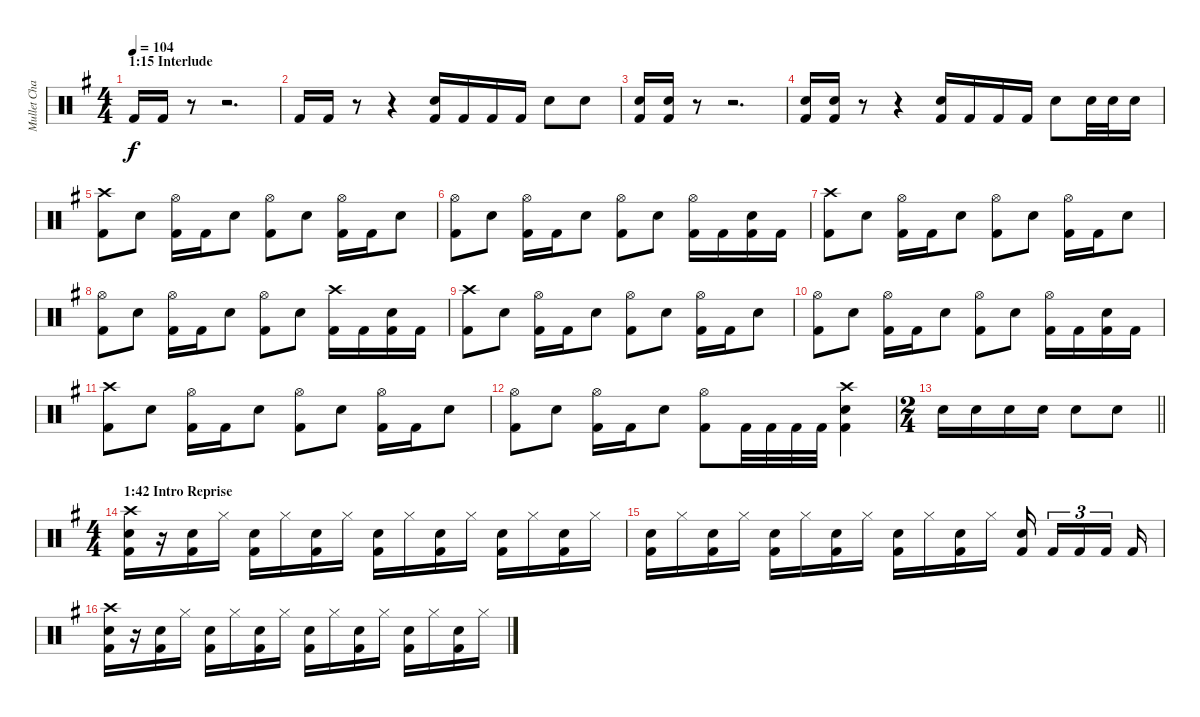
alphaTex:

\track ("Mullet Chad" "Mullet Cha") {instrument percussion}
\staff {score}
\articulation defaults
\ts (4 4)
\section ("" "1:15 Interlude")
\tempo 104
\clef neutral
\ks g "Kick (hit) 2".16{dy f} "Kick (hit) 2".16
r.8 r.2{d} |
"Kick (hit) 2".16 "Kick (hit) 2".16 r.8 r.4 ("Snare (hit) 2" "Kick (hit) 2").16 "Kick (hit) 2".16 "Kick (hit) 2".16 "Kick (hit) 2".16 "Snare (hit) 2".8 "Snare (hit) 2".8 |
("Snare (hit) 2" "Kick (hit) 2").16 ("Snare (hit) 2" "Kick (hit) 2").16 r.8 r.2{d} |
("Snare (hit) 2" "Kick (hit) 2").16 ("Snare (hit) 2" "Kick (hit) 2").16 r.8 r.4 ("Snare (hit) 2" "Kick (hit) 2").16 "Kick (hit) 2".16 "Kick (hit) 2".16 "Kick (hit) 2".16 "Snare (hit) 2".8 "Snare (hit) 2".32 "Snare (hit) 2".32 "Snare (hit) 2".16 |
("Crash high (hit)" "Kick (hit) 2").8 "Snare (hit) 2".8 ("Hi-Hat (open)" "Kick (hit) 2").16 "Kick (hit) 2".16 "Snare (hit) 2".8 ("Hi-Hat (open)" "Kick (hit) 2").8 "Snare (hit) 2".8 ("Hi-Hat (open)" "Kick (hit) 2").16 "Kick (hit) 2".16 "Snare (hit) 2".8 |
("Hi-Hat (open)" "Kick (hit) 2").8 "Snare (hit) 2".8 ("Hi-Hat (open)" "Kick (hit) 2").16 "Kick (hit) 2".16 "Snare (hit) 2".8 ("Hi-Hat (open)" "Kick (hit) 2").8 "Snare (hit) 2".8 ("Hi-Hat (open)" "Kick (hit) 2").16 "Kick (hit) 2".16 ("Snare (hit) 2" "Kick (hit) 2").16 "Kick (hit) 2".16 |
("Crash high (hit)" "Kick (hit) 2").8 "Snare (hit) 2".8 ("Hi-Hat (open)" "Kick (hit) 2").16 "Kick (hit) 2".16 "Snare (hit) 2".8 ("Hi-Hat (open)" "Kick (hit) 2").8 "Snare (hit) 2".8 ("Hi-Hat (open)" "Kick (hit) 2").16 "Kick (hit) 2".16 "Snare (hit) 2".8 |
("Hi-Hat (open)" "Kick (hit) 2").8 "Snare (hit) 2".8 ("Hi-Hat (open)" "Kick (hit) 2").16 "Kick (hit) 2".16 "Snare (hit) 2".8 ("Hi-Hat (open)" "Kick (hit) 2").8 "Snare (hit) 2".8 ("Crash high (hit)" "Kick (hit) 2").16 "Kick (hit) 2".16 ("Snare (hit) 2" "Kick (hit) 2").16 "Kick (hit) 2".16 |
("Crash high (hit)" "Kick (hit) 2").8 "Snare (hit) 2".8 ("Hi-Hat (open)" "Kick (hit) 2").16 "Kick (hit) 2".16 "Snare (hit) 2".8 ("Hi-Hat (open)" "Kick (hit) 2").8 "Snare (hit) 2".8 ("Hi-Hat (open)" "Kick (hit) 2").16 "Kick (hit) 2".16 "Snare (hit) 2".8 |
("Hi-Hat (open)" "Kick (hit) 2").8 "Snare (hit) 2".8 ("Hi-Hat (open)" "Kick (hit) 2").16 "Kick (hit) 2".16 "Snare (hit) 2".8 ("Hi-Hat (open)" "Kick (hit) 2").8 "Snare (hit) 2".8 ("Hi-Hat (open)" "Kick (hit) 2").16 "Kick (hit) 2".16 ("Snare (hit) 2" "Kick (hit) 2").16 "Kick (hit) 2".16 |
("Crash high (hit)" "Kick (hit) 2").8 "Snare (hit) 2".8 ("Hi-Hat (open)" "Kick (hit) 2").16 "Kick (hit) 2".16 "Snare (hit) 2".8 ("Hi-Hat (open)" "Kick (hit) 2").8 "Snare (hit) 2".8 ("Hi-Hat (open)" "Kick (hit) 2").16 "Kick (hit) 2".16 "Snare (hit) 2".8 |
("Hi-Hat (open)" "Kick (hit) 2").8 "Snare (hit) 2".8 ("Hi-Hat (open)" "Kick (hit) 2").16 "Kick (hit) 2".16 "Snare (hit) 2".8 ("Hi-Hat (open)" "Kick (hit) 2").8 "Kick (hit) 2".32 "Kick (hit) 2".32 "Kick (hit) 2".32 "Kick (hit) 2".32 ("Crash high (hit)" "Snare (hit) 2" "Kick (hit) 2").4 |
\ts (2 4)
\barLineRight lightlight "Snare (hit) 2".16 "Snare (hit) 2".16 "Snare (hit) 2".16 "Snare (hit) 2".16 "Snare (hit) 2".8 "Snare (hit) 2".8
|
\ts (4 4)
\section ("" "1:42 Intro Reprise")
("Crash high (hit)" "Snare (hit) 2" "Kick (hit) 2").16 r.16 ("Snare (hit) 2" "Kick (hit) 2").16 "Hi-Hat (closed)".16 ("Snare (hit) 2" "Kick (hit) 2").16 "Hi-Hat (closed)".16 ("Snare (hit) 2" "Kick (hit) 2").16 "Hi-Hat (closed)".16 ("Snare (hit) 2" "Kick (hit) 2").16 "Hi-Hat (closed)".16 ("Snare (hit) 2" "Kick (hit) 2").16 "Hi-Hat (closed)".16 ("Snare (hit) 2" "Kick (hit) 2").16 "Hi-Hat (closed)".16 ("Snare (hit) 2" "Kick (hit) 2").16 "Hi-Hat (closed)".16 |
("Snare (hit) 2" "Kick (hit) 2").16 "Hi-Hat (closed)".16 ("Snare (hit) 2" "Kick (hit) 2").16 "Hi-Hat (closed)".16 ("Snare (hit) 2" "Kick (hit) 2").16 "Hi-Hat (closed)".16 ("Snare (hit) 2" "Kick (hit) 2").16 "Hi-Hat (closed)".16 ("Snare (hit) 2" "Kick (hit) 2").16 "Hi-Hat (closed)".16 ("Snare (hit) 2" "Kick (hit) 2").16 "Hi-Hat (closed)".16 ("Snare (hit) 2" "Kick (hit) 2").16{beam splitsecondary} "Kick (hit) 2".16{tu (3 2)} "Kick (hit) 2".16{tu (3 2)} "Kick (hit) 2".16{tu (3 2) beam splitsecondary} "Kick (hit) 2".16 |
("Crash high (hit)" "Snare (hit) 2" "Kick (hit) 2").16 r.16 ("Snare (hit) 2" "Kick (hit) 2").16 "Hi-Hat (closed)".16 ("Snare (hit) 2" "Kick (hit) 2").16 "Hi-Hat (closed)".16 ("Snare (hit) 2" "Kick (hit) 2").16 "Hi-Hat (closed)".16 ("Snare (hit) 2" "Kick (hit) 2").16 "Hi-Hat (closed)".16 ("Snare (hit) 2" "Kick (hit) 2").16 "Hi-Hat (closed)".16 ("Snare (hit) 2" "Kick (hit) 2").16 "Hi-Hat (closed)".16 ("Snare (hit) 2" "Kick (hit) 2").16 "Hi-Hat (closed)".16
